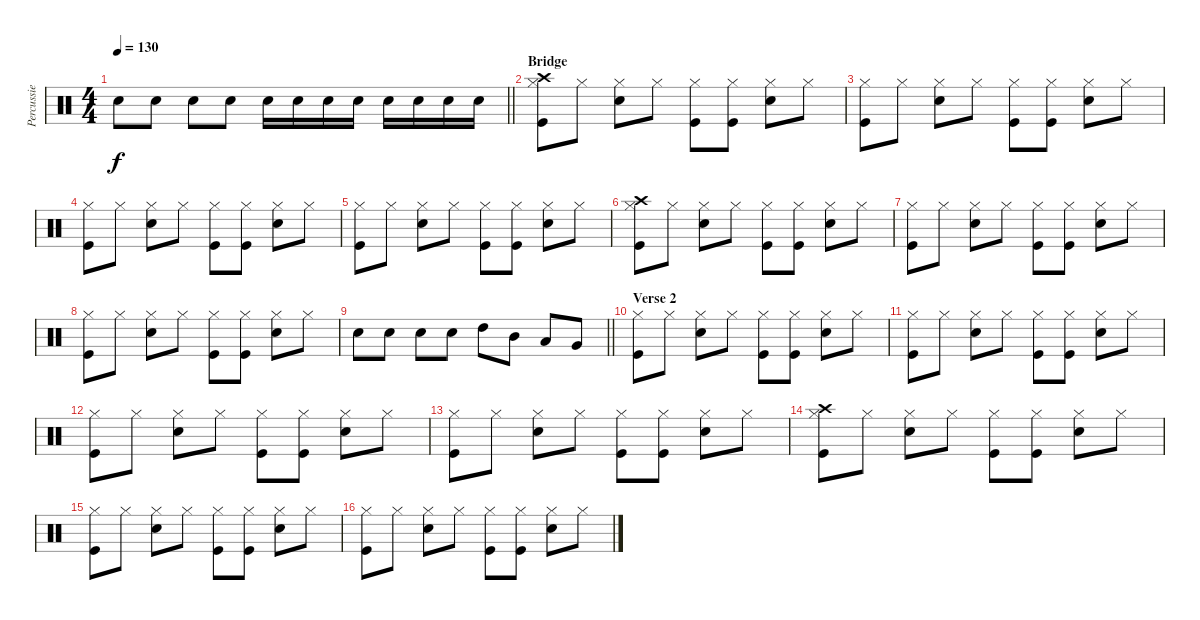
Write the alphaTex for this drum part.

\track ("Percussie" "Percussie") {instrument percussion}
\staff {score}
\articulation defaults
\ts (4 4)
\tempo 130
\clef neutral
\barLineRight lightlight
\ks c "Snare (hit) 2".8{dy f} "Snare (hit) 2".8 "Snare (hit) 2".8 "Snare (hit) 2".8 "Snare (hit) 2".16 "Snare (hit) 2".16 "Snare (hit) 2".16 "Snare (hit) 2".16 "Snare (hit) 2".16 "Snare (hit) 2".16 "Snare (hit) 2".16 "Snare (hit) 2".16
|
\section ("" "Bridge")
("Crash high (hit)" "Hi-Hat (closed)" "Kick (hit)").8 "Hi-Hat (closed)".8 ("Hi-Hat (closed)" "Snare (hit) 2").8 "Hi-Hat (closed)".8 ("Hi-Hat (closed)" "Kick (hit)").8 ("Hi-Hat (closed)" "Kick (hit)").8 ("Hi-Hat (closed)" "Snare (hit) 2").8 "Hi-Hat (closed)".8 |
("Hi-Hat (closed)" "Kick (hit)").8 "Hi-Hat (closed)".8 ("Hi-Hat (closed)" "Snare (hit) 2").8 "Hi-Hat (closed)".8 ("Hi-Hat (closed)" "Kick (hit)").8 ("Hi-Hat (closed)" "Kick (hit)").8 ("Hi-Hat (closed)" "Snare (hit) 2").8 "Hi-Hat (closed)".8 |
("Hi-Hat (closed)" "Kick (hit)").8 "Hi-Hat (closed)".8 ("Hi-Hat (closed)" "Snare (hit) 2").8 "Hi-Hat (closed)".8 ("Hi-Hat (closed)" "Kick (hit)").8 ("Hi-Hat (closed)" "Kick (hit)").8 ("Hi-Hat (closed)" "Snare (hit) 2").8 "Hi-Hat (closed)".8 |
("Hi-Hat (closed)" "Kick (hit)").8 "Hi-Hat (closed)".8 ("Hi-Hat (closed)" "Snare (hit) 2").8 "Hi-Hat (closed)".8 ("Hi-Hat (closed)" "Kick (hit)").8 ("Hi-Hat (closed)" "Kick (hit)").8 ("Hi-Hat (closed)" "Snare (hit) 2").8 "Hi-Hat (closed)".8 |
("Crash high (hit)" "Hi-Hat (closed)" "Kick (hit)").8 "Hi-Hat (closed)".8 ("Hi-Hat (closed)" "Snare (hit) 2").8 "Hi-Hat (closed)".8 ("Hi-Hat (closed)" "Kick (hit)").8 ("Hi-Hat (closed)" "Kick (hit)").8 ("Hi-Hat (closed)" "Snare (hit) 2").8 "Hi-Hat (closed)".8 |
("Hi-Hat (closed)" "Kick (hit)").8 "Hi-Hat (closed)".8 ("Hi-Hat (closed)" "Snare (hit) 2").8 "Hi-Hat (closed)".8 ("Hi-Hat (closed)" "Kick (hit)").8 ("Hi-Hat (closed)" "Kick (hit)").8 ("Hi-Hat (closed)" "Snare (hit) 2").8 "Hi-Hat (closed)".8 |
("Hi-Hat (closed)" "Kick (hit)").8 "Hi-Hat (closed)".8 ("Hi-Hat (closed)" "Snare (hit) 2").8 "Hi-Hat (closed)".8 ("Hi-Hat (closed)" "Kick (hit)").8 ("Hi-Hat (closed)" "Kick (hit)").8 ("Hi-Hat (closed)" "Snare (hit) 2").8 "Hi-Hat (closed)".8 |
\barLineRight lightlight "Snare (hit) 2".8 "Snare (hit) 2".8 "Snare (hit) 2".8 "Snare (hit) 2".8 "High Tom (hit)".8 "Mid Tom (hit)".8 "Low Tom (hit)".8 "Very Low Tom (hit)".8
|
\section ("" "Verse 2")
("Hi-Hat (closed)" "Kick (hit)").8 "Hi-Hat (closed)".8 ("Hi-Hat (closed)" "Snare (hit) 2").8 "Hi-Hat (closed)".8 ("Hi-Hat (closed)" "Kick (hit)").8 ("Hi-Hat (closed)" "Kick (hit)").8 ("Hi-Hat (closed)" "Snare (hit) 2").8 "Hi-Hat (closed)".8 |
("Hi-Hat (closed)" "Kick (hit)").8 "Hi-Hat (closed)".8 ("Hi-Hat (closed)" "Snare (hit) 2").8 "Hi-Hat (closed)".8 ("Hi-Hat (closed)" "Kick (hit)").8 ("Hi-Hat (closed)" "Kick (hit)").8 ("Hi-Hat (closed)" "Snare (hit) 2").8 "Hi-Hat (closed)".8 |
("Hi-Hat (closed)" "Kick (hit)").8 "Hi-Hat (closed)".8 ("Hi-Hat (closed)" "Snare (hit) 2").8 "Hi-Hat (closed)".8 ("Hi-Hat (closed)" "Kick (hit)").8 ("Hi-Hat (closed)" "Kick (hit)").8 ("Hi-Hat (closed)" "Snare (hit) 2").8 "Hi-Hat (closed)".8 |
("Hi-Hat (closed)" "Kick (hit)").8 "Hi-Hat (closed)".8 ("Hi-Hat (closed)" "Snare (hit) 2").8 "Hi-Hat (closed)".8 ("Hi-Hat (closed)" "Kick (hit)").8 ("Hi-Hat (closed)" "Kick (hit)").8 ("Hi-Hat (closed)" "Snare (hit) 2").8 "Hi-Hat (closed)".8 |
("Crash high (hit)" "Hi-Hat (closed)" "Kick (hit)").8 "Hi-Hat (closed)".8 ("Hi-Hat (closed)" "Snare (hit) 2").8 "Hi-Hat (closed)".8 ("Hi-Hat (closed)" "Kick (hit)").8 ("Hi-Hat (closed)" "Kick (hit)").8 ("Hi-Hat (closed)" "Snare (hit) 2").8 "Hi-Hat (closed)".8 |
("Hi-Hat (closed)" "Kick (hit)").8 "Hi-Hat (closed)".8 ("Hi-Hat (closed)" "Snare (hit) 2").8 "Hi-Hat (closed)".8 ("Hi-Hat (closed)" "Kick (hit)").8 ("Hi-Hat (closed)" "Kick (hit)").8 ("Hi-Hat (closed)" "Snare (hit) 2").8 "Hi-Hat (closed)".8 |
("Hi-Hat (closed)" "Kick (hit)").8 "Hi-Hat (closed)".8 ("Hi-Hat (closed)" "Snare (hit) 2").8 "Hi-Hat (closed)".8 ("Hi-Hat (closed)" "Kick (hit)").8 ("Hi-Hat (closed)" "Kick (hit)").8 ("Hi-Hat (closed)" "Snare (hit) 2").8 "Hi-Hat (closed)".8
